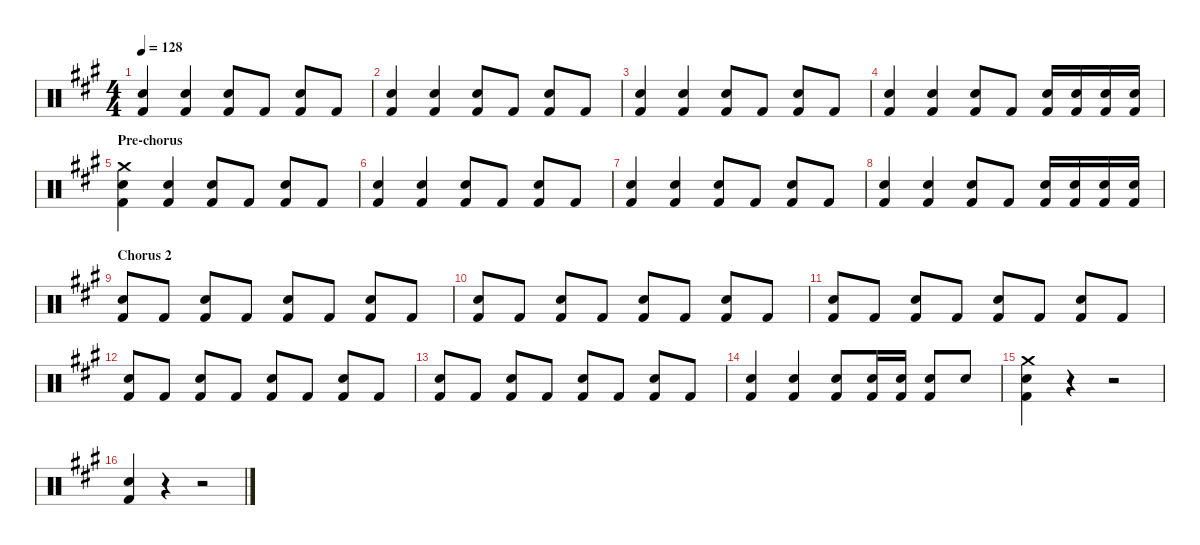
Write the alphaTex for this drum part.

\defaultSystemsLayout 4
\hideDynamics
\bracketExtendMode nobrackets
\singleTrackTrackNamePolicy hidden
\multiTrackTrackNamePolicy hidden
\firstSystemTrackNameMode fullname
\firstSystemTrackNameOrientation horizontal
\otherSystemsTrackNameOrientation horizontal
\track ("Drumkit" "Drums") {instrument percussion}
\staff {score}
\articulation defaults
\ts (4 4)
\tempo 128
\clef neutral
\ks a
("Snare (hit) 2"{acc forcenatural} "Kick (hit) 2"{acc forcenatural}).4{dy f beam Up} ("Snare (hit) 2"{acc forcenatural} "Kick (hit) 2"{acc forcenatural}).4{beam Up} ("Snare (hit) 2"{acc forcenatural} "Kick (hit) 2"{acc forcenatural}).8{beam Up} "Kick (hit) 2"{acc forcenatural}.8{beam Up} ("Snare (hit) 2"{acc forcenatural} "Kick (hit) 2"{acc forcenatural}).8{beam Up} "Kick (hit) 2"{acc forcenatural}.8{beam Up} |
("Snare (hit) 2"{acc forcenatural} "Kick (hit) 2"{acc forcenatural}).4{beam Up} ("Snare (hit) 2"{acc forcenatural} "Kick (hit) 2"{acc forcenatural}).4{beam Up} ("Snare (hit) 2"{acc forcenatural} "Kick (hit) 2"{acc forcenatural}).8{beam Up} "Kick (hit) 2"{acc forcenatural}.8{beam Up} ("Snare (hit) 2"{acc forcenatural} "Kick (hit) 2"{acc forcenatural}).8{beam Up} "Kick (hit) 2"{acc forcenatural}.8{beam Up} |
("Snare (hit) 2"{acc forcenatural} "Kick (hit) 2"{acc forcenatural}).4{beam Up} ("Snare (hit) 2"{acc forcenatural} "Kick (hit) 2"{acc forcenatural}).4{beam Up} ("Snare (hit) 2"{acc forcenatural} "Kick (hit) 2"{acc forcenatural}).8{beam Up} "Kick (hit) 2"{acc forcenatural}.8{beam Up} ("Snare (hit) 2"{acc forcenatural} "Kick (hit) 2"{acc forcenatural}).8{beam Up} "Kick (hit) 2"{acc forcenatural}.8{beam Up} |
("Snare (hit) 2"{acc forcenatural} "Kick (hit) 2"{acc forcenatural}).4{beam Up} ("Snare (hit) 2"{acc forcenatural} "Kick (hit) 2"{acc forcenatural}).4{beam Up} ("Snare (hit) 2"{acc forcenatural} "Kick (hit) 2"{acc forcenatural}).8{beam Up} "Kick (hit) 2"{acc forcenatural}.8{beam Up} ("Snare (hit) 2"{acc forcenatural} "Kick (hit) 2"{acc forcenatural}).16{beam Up} ("Snare (hit) 2"{acc forcenatural} "Kick (hit) 2"{acc forcenatural}).16{beam Up} ("Snare (hit) 2"{acc forcenatural} "Kick (hit) 2"{acc forcenatural}).16{beam Up} ("Snare (hit) 2"{acc forcenatural} "Kick (hit) 2"{acc forcenatural}).16{beam Up} |
\section ("" "Pre-chorus")
("Crash medium (hit)"{acc forcenatural} "Snare (hit) 2"{acc forcenatural} "Kick (hit) 2"{acc forcenatural}).4{beam Down} ("Snare (hit) 2"{acc forcenatural} "Kick (hit) 2"{acc forcenatural}).4{beam Up} ("Snare (hit) 2"{acc forcenatural} "Kick (hit) 2"{acc forcenatural}).8{beam Up} "Kick (hit) 2"{acc forcenatural}.8{beam Up} ("Snare (hit) 2"{acc forcenatural} "Kick (hit) 2"{acc forcenatural}).8{beam Up} "Kick (hit) 2"{acc forcenatural}.8{beam Up} |
("Snare (hit) 2"{acc forcenatural} "Kick (hit) 2"{acc forcenatural}).4{beam Up} ("Snare (hit) 2"{acc forcenatural} "Kick (hit) 2"{acc forcenatural}).4{beam Up} ("Snare (hit) 2"{acc forcenatural} "Kick (hit) 2"{acc forcenatural}).8{beam Up} "Kick (hit) 2"{acc forcenatural}.8{beam Up} ("Snare (hit) 2"{acc forcenatural} "Kick (hit) 2"{acc forcenatural}).8{beam Up} "Kick (hit) 2"{acc forcenatural}.8{beam Up} |
("Snare (hit) 2"{acc forcenatural} "Kick (hit) 2"{acc forcenatural}).4{beam Up} ("Snare (hit) 2"{acc forcenatural} "Kick (hit) 2"{acc forcenatural}).4{beam Up} ("Snare (hit) 2"{acc forcenatural} "Kick (hit) 2"{acc forcenatural}).8{beam Up} "Kick (hit) 2"{acc forcenatural}.8{beam Up} ("Snare (hit) 2"{acc forcenatural} "Kick (hit) 2"{acc forcenatural}).8{beam Up} "Kick (hit) 2"{acc forcenatural}.8{beam Up} |
("Snare (hit) 2"{acc forcenatural} "Kick (hit) 2"{acc forcenatural}).4{beam Up} ("Snare (hit) 2"{acc forcenatural} "Kick (hit) 2"{acc forcenatural}).4{beam Up} ("Snare (hit) 2"{acc forcenatural} "Kick (hit) 2"{acc forcenatural}).8{beam Up} "Kick (hit) 2"{acc forcenatural}.8{beam Up} ("Snare (hit) 2"{acc forcenatural} "Kick (hit) 2"{acc forcenatural}).16{beam Up} ("Snare (hit) 2"{acc forcenatural} "Kick (hit) 2"{acc forcenatural}).16{beam Up} ("Snare (hit) 2"{acc forcenatural} "Kick (hit) 2"{acc forcenatural}).16{beam Up} ("Snare (hit) 2"{acc forcenatural} "Kick (hit) 2"{acc forcenatural}).16{beam Up} |
\section ("" "Chorus 2")
("Snare (hit) 2"{acc forcenatural} "Kick (hit) 2"{acc forcenatural}).8{beam Up} "Kick (hit) 2"{acc forcenatural}.8{beam Up} ("Snare (hit) 2"{acc forcenatural} "Kick (hit) 2"{acc forcenatural}).8{beam Up} "Kick (hit) 2"{acc forcenatural}.8{beam Up} ("Snare (hit) 2"{acc forcenatural} "Kick (hit) 2"{acc forcenatural}).8{beam Up} "Kick (hit) 2"{acc forcenatural}.8{beam Up} ("Snare (hit) 2"{acc forcenatural} "Kick (hit) 2"{acc forcenatural}).8{beam Up} "Kick (hit) 2"{acc forcenatural}.8{beam Up} |
("Snare (hit) 2"{acc forcenatural} "Kick (hit) 2"{acc forcenatural}).8{beam Up} "Kick (hit) 2"{acc forcenatural}.8{beam Up} ("Snare (hit) 2"{acc forcenatural} "Kick (hit) 2"{acc forcenatural}).8{beam Up} "Kick (hit) 2"{acc forcenatural}.8{beam Up} ("Snare (hit) 2"{acc forcenatural} "Kick (hit) 2"{acc forcenatural}).8{beam Up} "Kick (hit) 2"{acc forcenatural}.8{beam Up} ("Snare (hit) 2"{acc forcenatural} "Kick (hit) 2"{acc forcenatural}).8{beam Up} "Kick (hit) 2"{acc forcenatural}.8{beam Up} |
("Snare (hit) 2"{acc forcenatural} "Kick (hit) 2"{acc forcenatural}).8{beam Up} "Kick (hit) 2"{acc forcenatural}.8{beam Up} ("Snare (hit) 2"{acc forcenatural} "Kick (hit) 2"{acc forcenatural}).8{beam Up} "Kick (hit) 2"{acc forcenatural}.8{beam Up} ("Snare (hit) 2"{acc forcenatural} "Kick (hit) 2"{acc forcenatural}).8{beam Up} "Kick (hit) 2"{acc forcenatural}.8{beam Up} ("Snare (hit) 2"{acc forcenatural} "Kick (hit) 2"{acc forcenatural}).8{beam Up} "Kick (hit) 2"{acc forcenatural}.8{beam Up} |
("Snare (hit) 2"{acc forcenatural} "Kick (hit) 2"{acc forcenatural}).8{beam Up} "Kick (hit) 2"{acc forcenatural}.8{beam Up} ("Snare (hit) 2"{acc forcenatural} "Kick (hit) 2"{acc forcenatural}).8{beam Up} "Kick (hit) 2"{acc forcenatural}.8{beam Up} ("Snare (hit) 2"{acc forcenatural} "Kick (hit) 2"{acc forcenatural}).8{beam Up} "Kick (hit) 2"{acc forcenatural}.8{beam Up} ("Snare (hit) 2"{acc forcenatural} "Kick (hit) 2"{acc forcenatural}).8{beam Up} "Kick (hit) 2"{acc forcenatural}.8{beam Up} |
("Snare (hit) 2"{acc forcenatural} "Kick (hit) 2"{acc forcenatural}).8{beam Up} "Kick (hit) 2"{acc forcenatural}.8{beam Up} ("Snare (hit) 2"{acc forcenatural} "Kick (hit) 2"{acc forcenatural}).8{beam Up} "Kick (hit) 2"{acc forcenatural}.8{beam Up} ("Snare (hit) 2"{acc forcenatural} "Kick (hit) 2"{acc forcenatural}).8{beam Up} "Kick (hit) 2"{acc forcenatural}.8{beam Up} ("Snare (hit) 2"{acc forcenatural} "Kick (hit) 2"{acc forcenatural}).8{beam Up} "Kick (hit) 2"{acc forcenatural}.8{beam Up} |
("Snare (hit) 2"{acc forcenatural} "Kick (hit) 2"{acc forcenatural}).4{beam Up} ("Snare (hit) 2"{acc forcenatural} "Kick (hit) 2"{acc forcenatural}).4{beam Up} ("Snare (hit) 2"{acc forcenatural} "Kick (hit) 2"{acc forcenatural}).8{beam Up} ("Snare (hit) 2"{acc forcenatural} "Kick (hit) 2"{acc forcenatural}).16{beam Up} ("Snare (hit) 2"{acc forcenatural} "Kick (hit) 2"{acc forcenatural}).16{beam Up} ("Snare (hit) 2"{acc forcenatural} "Kick (hit) 2"{acc forcenatural}).8{beam Up} "Snare (hit) 2"{acc forcenatural}.8{beam Up} |
("Snare (hit) 2"{acc forcenatural} "Kick (hit) 2"{acc forcenatural} "Crash medium (hit)"{acc forcenatural}).4{beam Down} r.4{beam Down} r.2{beam Down} |
("Snare (hit) 2"{acc forcenatural} "Kick (hit) 2"{acc forcenatural}).4{beam Up} r.4{beam Up} r.2{beam Up}
